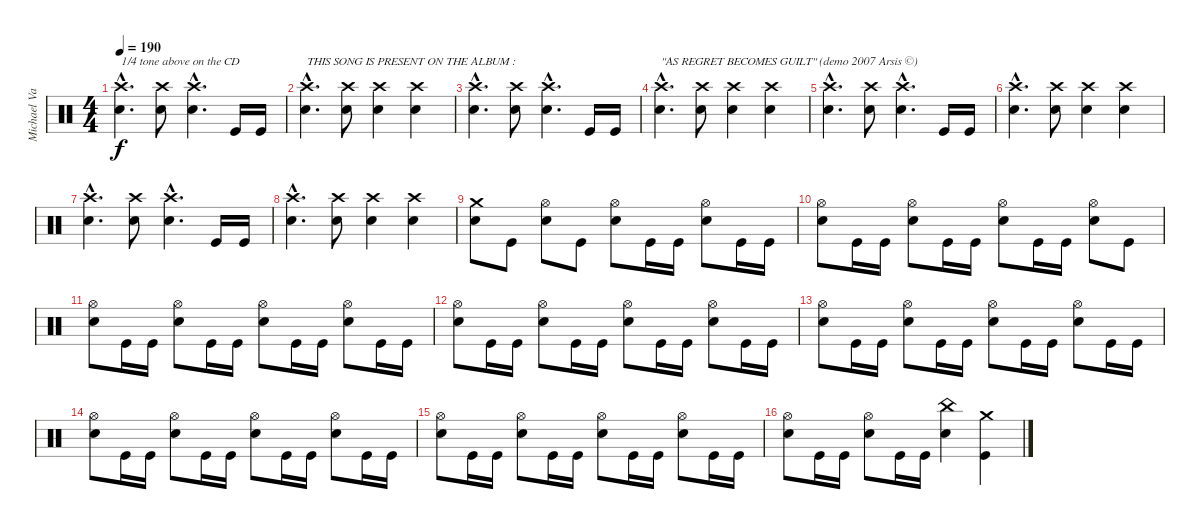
\track ("Michael VanDyne" "Michael Va") {instrument percussion}
\staff {score}
\articulation defaults
\ts (4 4)
\tempo 190
\clef neutral
\ks c
("Crash high (hit)"{hac} "Electric Snare (hit)"{hac}).4{d txt "1/4 tone above on the CD" dy f} ("Crash high (hit)" "Electric Snare (hit)").8 ("Crash high (hit)"{hac} "Electric Snare (hit)"{hac}).4{d} "Kick (hit)".16 "Kick (hit)".16 |
("Crash high (hit)"{hac} "Electric Snare (hit)"{hac}).4{d txt "THIS SONG IS PRESENT ON THE ALBUM :"} ("Crash high (hit)" "Electric Snare (hit)").8 ("Crash high (hit)" "Electric Snare (hit)").4 ("Crash high (hit)" "Electric Snare (hit)").4 |
("Crash high (hit)"{hac} "Electric Snare (hit)"{hac}).4{d} ("Crash high (hit)" "Electric Snare (hit)").8 ("Crash high (hit)"{hac} "Electric Snare (hit)"{hac}).4{d} "Kick (hit)".16 "Kick (hit)".16 |
("Crash high (hit)"{hac} "Electric Snare (hit)"{hac}).4{d txt "\"AS REGRET BECOMES GUILT\" (demo 2007 Arsis ©) "} ("Crash high (hit)" "Electric Snare (hit)").8 ("Crash high (hit)" "Electric Snare (hit)").4 ("Crash high (hit)" "Electric Snare (hit)").4 |
("Crash high (hit)"{hac} "Electric Snare (hit)"{hac}).4{d} ("Crash high (hit)" "Electric Snare (hit)").8 ("Crash high (hit)"{hac} "Electric Snare (hit)"{hac}).4{d} "Kick (hit)".16 "Kick (hit)".16 |
("Crash high (hit)"{hac} "Electric Snare (hit)"{hac}).4{d} ("Crash high (hit)" "Electric Snare (hit)").8 ("Crash high (hit)" "Electric Snare (hit)").4 ("Crash high (hit)" "Electric Snare (hit)").4 |
("Crash high (hit)"{hac} "Electric Snare (hit)"{hac}).4{d} ("Crash high (hit)" "Electric Snare (hit)").8 ("Crash high (hit)"{hac} "Electric Snare (hit)"{hac}).4{d} "Kick (hit)".16 "Kick (hit)".16 |
("Crash high (hit)"{hac} "Electric Snare (hit)"{hac}).4{d} ("Crash high (hit)" "Electric Snare (hit)").8 ("Crash high (hit)" "Electric Snare (hit)").4 ("Crash high (hit)" "Electric Snare (hit)").4 |
("Crash medium (hit)" "Electric Snare (hit)").8 "Kick (hit)".8 ("Hi-Hat (open)" "Electric Snare (hit)").8 "Kick (hit)".8 ("Hi-Hat (open)" "Electric Snare (hit)").8 "Kick (hit)".16 "Kick (hit)".16 ("Hi-Hat (open)" "Electric Snare (hit)").8 "Kick (hit)".16 "Kick (hit)".16 |
("Hi-Hat (open)" "Electric Snare (hit)").8 "Kick (hit)".16 "Kick (hit)".16 ("Hi-Hat (open)" "Electric Snare (hit)").8 "Kick (hit)".16 "Kick (hit)".16 ("Hi-Hat (open)" "Electric Snare (hit)").8 "Kick (hit)".16 "Kick (hit)".16 ("Hi-Hat (open)" "Electric Snare (hit)").8 "Kick (hit)".8 |
("Hi-Hat (open)" "Electric Snare (hit)").8 "Kick (hit)".16 "Kick (hit)".16 ("Hi-Hat (open)" "Electric Snare (hit)").8 "Kick (hit)".16 "Kick (hit)".16 ("Hi-Hat (open)" "Electric Snare (hit)").8 "Kick (hit)".16 "Kick (hit)".16 ("Hi-Hat (open)" "Electric Snare (hit)").8 "Kick (hit)".16 "Kick (hit)".16 |
("Hi-Hat (open)" "Electric Snare (hit)").8 "Kick (hit)".16 "Kick (hit)".16 ("Hi-Hat (open)" "Electric Snare (hit)").8 "Kick (hit)".16 "Kick (hit)".16 ("Hi-Hat (open)" "Electric Snare (hit)").8 "Kick (hit)".16 "Kick (hit)".16 ("Hi-Hat (open)" "Electric Snare (hit)").8 "Kick (hit)".16 "Kick (hit)".16 |
("Hi-Hat (open)" "Electric Snare (hit)").8 "Kick (hit)".16 "Kick (hit)".16 ("Hi-Hat (open)" "Electric Snare (hit)").8 "Kick (hit)".16 "Kick (hit)".16 ("Hi-Hat (open)" "Electric Snare (hit)").8 "Kick (hit)".16 "Kick (hit)".16 ("Hi-Hat (open)" "Electric Snare (hit)").8 "Kick (hit)".16 "Kick (hit)".16 |
("Hi-Hat (open)" "Electric Snare (hit)").8 "Kick (hit)".16 "Kick (hit)".16 ("Hi-Hat (open)" "Electric Snare (hit)").8 "Kick (hit)".16 "Kick (hit)".16 ("Hi-Hat (open)" "Electric Snare (hit)").8 "Kick (hit)".16 "Kick (hit)".16 ("Hi-Hat (open)" "Electric Snare (hit)").8 "Kick (hit)".16 "Kick (hit)".16 |
("Hi-Hat (open)" "Electric Snare (hit)").8 "Kick (hit)".16 "Kick (hit)".16 ("Hi-Hat (open)" "Electric Snare (hit)").8 "Kick (hit)".16 "Kick (hit)".16 ("Hi-Hat (open)" "Electric Snare (hit)").8 "Kick (hit)".16 "Kick (hit)".16 ("Hi-Hat (open)" "Electric Snare (hit)").8 "Kick (hit)".16 "Kick (hit)".16 |
("Hi-Hat (open)" "Electric Snare (hit)").8 "Kick (hit)".16 "Kick (hit)".16 ("Hi-Hat (open)" "Electric Snare (hit)").8 "Kick (hit)".16 "Kick (hit)".16 ("China (hit)" "Electric Snare (hit)").4 ("Crash medium (hit)" "Kick (hit)").4
